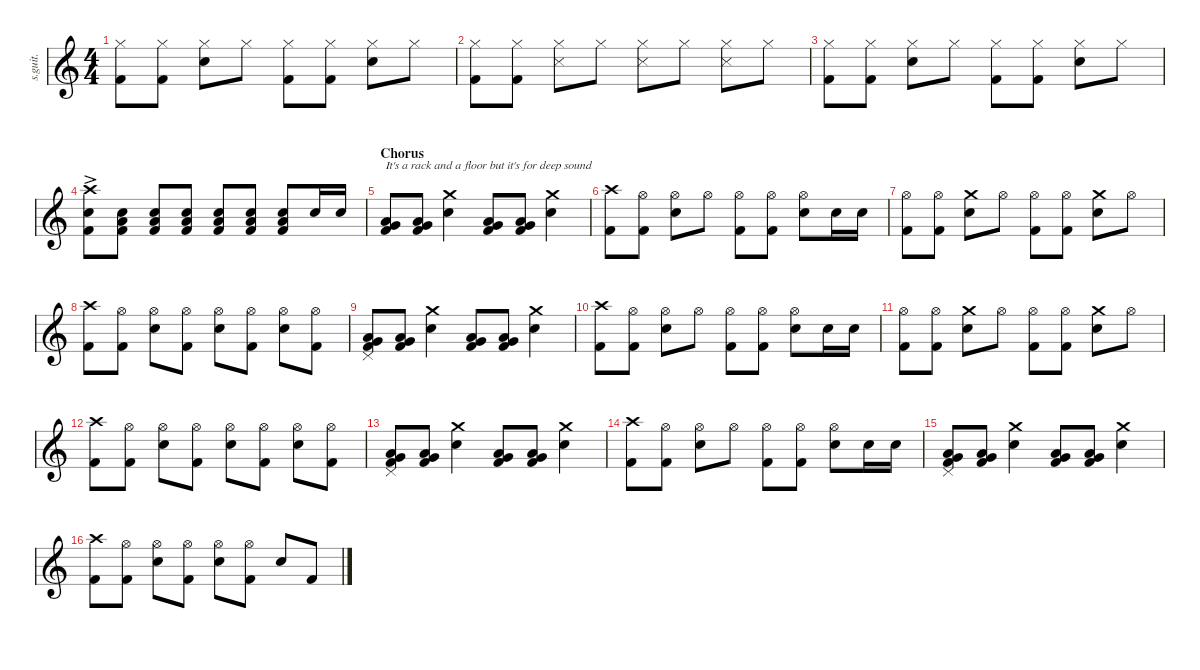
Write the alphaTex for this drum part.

\defaultSystemsLayout 4
\hideDynamics
\bracketExtendMode nobrackets
\track ("Dave Grohl - Drums" "s.guit.") {instrument percussion}
\staff {score}
\articulation defaults
\ts (4 4)
\tempo (100 hide)
\clef g2
\ks c
("Hi-Hat (closed)" "Kick (hit) 2").8{lyrics (0 "") lyrics (1 "") lyrics (2 "") lyrics (3 "") lyrics (4 "") dy mf} ("Hi-Hat (closed)" "Kick (hit) 2").8{lyrics (0 "") lyrics (1 "") lyrics (2 "") lyrics (3 "") lyrics (4 "")} ("Hi-Hat (closed)" "Snare (hit) 2").8{lyrics (0 "") lyrics (1 "") lyrics (2 "") lyrics (3 "") lyrics (4 "")} "Hi-Hat (closed)".8{lyrics (0 "") lyrics (1 "") lyrics (2 "") lyrics (3 "") lyrics (4 "")} ("Hi-Hat (closed)" "Kick (hit) 2").8{lyrics (0 "") lyrics (1 "") lyrics (2 "") lyrics (3 "") lyrics (4 "")} ("Hi-Hat (closed)" "Kick (hit) 2").8{lyrics (0 "") lyrics (1 "") lyrics (2 "") lyrics (3 "") lyrics (4 "")} ("Snare (hit) 2" "Hi-Hat (closed)").8{lyrics (0 "") lyrics (1 "") lyrics (2 "") lyrics (3 "") lyrics (4 "")} "Hi-Hat (closed)".8{lyrics (0 "") lyrics (1 "") lyrics (2 "") lyrics (3 "") lyrics (4 "")} |
("Hi-Hat (closed)" "Kick (hit) 2").8{lyrics (0 "") lyrics (1 "") lyrics (2 "") lyrics (3 "") lyrics (4 "")} ("Hi-Hat (closed)" "Kick (hit) 2").8{lyrics (0 "") lyrics (1 "") lyrics (2 "") lyrics (3 "") lyrics (4 "")} ("Hi-Hat (closed)" "Snare (side stick) 3").8{lyrics (0 "") lyrics (1 "") lyrics (2 "") lyrics (3 "") lyrics (4 "")} "Hi-Hat (closed)".8{lyrics (0 "") lyrics (1 "") lyrics (2 "") lyrics (3 "") lyrics (4 "")} ("Hi-Hat (closed)" "Snare (side stick) 3").8{lyrics (0 "") lyrics (1 "") lyrics (2 "") lyrics (3 "") lyrics (4 "")} "Hi-Hat (closed)".8{lyrics (0 "") lyrics (1 "") lyrics (2 "") lyrics (3 "") lyrics (4 "")} ("Hi-Hat (closed)" "Snare (side stick) 3").8{lyrics (0 "") lyrics (1 "") lyrics (2 "") lyrics (3 "") lyrics (4 "")} "Hi-Hat (closed)".8{lyrics (0 "") lyrics (1 "") lyrics (2 "") lyrics (3 "") lyrics (4 "")} |
("Hi-Hat (closed)" "Kick (hit) 2").8{lyrics (0 "") lyrics (1 "") lyrics (2 "") lyrics (3 "") lyrics (4 "")} ("Hi-Hat (closed)" "Kick (hit) 2").8{lyrics (0 "") lyrics (1 "") lyrics (2 "") lyrics (3 "") lyrics (4 "")} ("Hi-Hat (closed)" "Snare (hit) 2").8{lyrics (0 "") lyrics (1 "") lyrics (2 "") lyrics (3 "") lyrics (4 "")} "Hi-Hat (closed)".8{lyrics (0 "") lyrics (1 "") lyrics (2 "") lyrics (3 "") lyrics (4 "")} ("Hi-Hat (closed)" "Kick (hit) 2").8{lyrics (0 "") lyrics (1 "") lyrics (2 "") lyrics (3 "") lyrics (4 "")} ("Hi-Hat (closed)" "Kick (hit) 2").8{lyrics (0 "") lyrics (1 "") lyrics (2 "") lyrics (3 "") lyrics (4 "")} ("Snare (hit) 2" "Hi-Hat (closed)").8{lyrics (0 "") lyrics (1 "") lyrics (2 "") lyrics (3 "") lyrics (4 "")} "Hi-Hat (closed)".8{lyrics (0 "") lyrics (1 "") lyrics (2 "") lyrics (3 "") lyrics (4 "")} |
("Crash high (hit)"{ac} "Snare (hit) 2" "Kick (hit) 2").8{lyrics (0 "") lyrics (1 "") lyrics (2 "") lyrics (3 "") lyrics (4 "")} ("Snare (hit) 2" "Low Tom (hit)" "Kick (hit) 2").8{lyrics (0 "") lyrics (1 "") lyrics (2 "") lyrics (3 "") lyrics (4 "") dy pp} ("Snare (hit) 2" "Low Tom (hit)" "Kick (hit) 2").8{lyrics (0 "") lyrics (1 "") lyrics (2 "") lyrics (3 "") lyrics (4 "") dy p} ("Snare (hit) 2" "Low Tom (hit)" "Kick (hit) 2").8{lyrics (0 "") lyrics (1 "") lyrics (2 "") lyrics (3 "") lyrics (4 "")} ("Snare (hit) 2" "Low Tom (hit)" "Kick (hit) 2").8{lyrics (0 "") lyrics (1 "") lyrics (2 "") lyrics (3 "") lyrics (4 "") dy mp} ("Snare (hit) 2" "Low Tom (hit)" "Kick (hit) 2").8{lyrics (0 "") lyrics (1 "") lyrics (2 "") lyrics (3 "") lyrics (4 "") dy mf} ("Snare (hit) 2" "Low Tom (hit)" "Kick (hit) 2").8{lyrics (0 "") lyrics (1 "") lyrics (2 "") lyrics (3 "") lyrics (4 "") dy f} "Snare (hit) 2".16{lyrics (0 "") lyrics (1 "") lyrics (2 "") lyrics (3 "") lyrics (4 "") dy ff} "Snare (hit) 2".16{lyrics (0 "") lyrics (1 "") lyrics (2 "") lyrics (3 "") lyrics (4 "")} |
\section ("" "Chorus")
("Low Tom (hit)" "Kick (hit) 2" "Very Low Tom (hit)").8{txt "It's a rack and a floor but it's for deep sound" lyrics (0 "") lyrics (1 "") lyrics (2 "") lyrics (3 "") lyrics (4 "")} ("Low Tom (hit)" "Kick (hit) 2" "Very Low Tom (hit)").8{lyrics (0 "") lyrics (1 "") lyrics (2 "") lyrics (3 "") lyrics (4 "")} ("Snare (hit) 2" "Crash medium (hit)").4{lyrics (0 "") lyrics (1 "") lyrics (2 "") lyrics (3 "") lyrics (4 "")} ("Low Tom (hit)" "Kick (hit) 2" "Very Low Tom (hit)").8{lyrics (0 "") lyrics (1 "") lyrics (2 "") lyrics (3 "") lyrics (4 "")} ("Low Tom (hit)" "Kick (hit) 2" "Very Low Tom (hit)").8{lyrics (0 "") lyrics (1 "") lyrics (2 "") lyrics (3 "") lyrics (4 "")} ("Snare (hit) 2" "Crash medium (hit)").4{lyrics (0 "") lyrics (1 "") lyrics (2 "") lyrics (3 "") lyrics (4 "")} |
("Kick (hit) 2" "Crash high (hit)").8{lyrics (0 "") lyrics (1 "") lyrics (2 "") lyrics (3 "") lyrics (4 "")} ("Hi-Hat (open)" "Kick (hit) 2").8{lyrics (0 "") lyrics (1 "") lyrics (2 "") lyrics (3 "") lyrics (4 "")} ("Snare (hit) 2" "Hi-Hat (open)").8{lyrics (0 "") lyrics (1 "") lyrics (2 "") lyrics (3 "") lyrics (4 "")} "Hi-Hat (open)".8{lyrics (0 "") lyrics (1 "") lyrics (2 "") lyrics (3 "") lyrics (4 "")} ("Hi-Hat (open)" "Kick (hit) 2").8{lyrics (0 "") lyrics (1 "") lyrics (2 "") lyrics (3 "") lyrics (4 "")} ("Hi-Hat (open)" "Kick (hit) 2").8{lyrics (0 "") lyrics (1 "") lyrics (2 "") lyrics (3 "") lyrics (4 "") dy f} ("Snare (hit) 2" "Hi-Hat (open)").8{lyrics (0 "") lyrics (1 "") lyrics (2 "") lyrics (3 "") lyrics (4 "") dy ff} "Snare (hit) 2".16{lyrics (0 "") lyrics (1 "") lyrics (2 "") lyrics (3 "") lyrics (4 "")} "Snare (hit) 2".16{lyrics (0 "") lyrics (1 "") lyrics (2 "") lyrics (3 "") lyrics (4 "")} |
("Kick (hit) 2" "Hi-Hat (open)").8{lyrics (0 "") lyrics (1 "") lyrics (2 "") lyrics (3 "") lyrics (4 "")} ("Kick (hit) 2" "Hi-Hat (open)").8{lyrics (0 "") lyrics (1 "") lyrics (2 "") lyrics (3 "") lyrics (4 "")} ("Snare (hit) 2" "Crash medium (hit)").8{lyrics (0 "") lyrics (1 "") lyrics (2 "") lyrics (3 "") lyrics (4 "")} "Hi-Hat (open)".8{lyrics (0 "") lyrics (1 "") lyrics (2 "") lyrics (3 "") lyrics (4 "")} ("Kick (hit) 2" "Hi-Hat (open)").8{lyrics (0 "") lyrics (1 "") lyrics (2 "") lyrics (3 "") lyrics (4 "")} ("Kick (hit) 2" "Hi-Hat (open)").8{lyrics (0 "") lyrics (1 "") lyrics (2 "") lyrics (3 "") lyrics (4 "")} ("Snare (hit) 2" "Crash medium (hit)").8{lyrics (0 "") lyrics (1 "") lyrics (2 "") lyrics (3 "") lyrics (4 "")} "Hi-Hat (open)".8{lyrics (0 "") lyrics (1 "") lyrics (2 "") lyrics (3 "") lyrics (4 "")} |
("Kick (hit) 2" "Crash high (hit)").8{lyrics (0 "") lyrics (1 "") lyrics (2 "") lyrics (3 "") lyrics (4 "")} ("Hi-Hat (open)" "Kick (hit) 2").8{lyrics (0 "") lyrics (1 "") lyrics (2 "") lyrics (3 "") lyrics (4 "")} ("Snare (hit) 2" "Hi-Hat (open)").8{lyrics (0 "") lyrics (1 "") lyrics (2 "") lyrics (3 "") lyrics (4 "")} ("Hi-Hat (open)" "Kick (hit) 2").8{lyrics (0 "") lyrics (1 "") lyrics (2 "") lyrics (3 "") lyrics (4 "")} ("Snare (hit) 2" "Hi-Hat (open)").8{lyrics (0 "") lyrics (1 "") lyrics (2 "") lyrics (3 "") lyrics (4 "")} ("Hi-Hat (open)" "Kick (hit) 2").8{lyrics (0 "") lyrics (1 "") lyrics (2 "") lyrics (3 "") lyrics (4 "")} ("Snare (hit) 2" "Hi-Hat (open)").8{lyrics (0 "") lyrics (1 "") lyrics (2 "") lyrics (3 "") lyrics (4 "")} ("Hi-Hat (open)" "Kick (hit) 2").8{lyrics (0 "") lyrics (1 "") lyrics (2 "") lyrics (3 "") lyrics (4 "")} |
("Low Tom (hit)" "Kick (hit) 2" "Pedal Hi-Hat (hit)" "Very Low Tom (hit)").8{lyrics (0 "") lyrics (1 "") lyrics (2 "") lyrics (3 "") lyrics (4 "")} ("Low Tom (hit)" "Kick (hit) 2" "Very Low Tom (hit)").8{lyrics (0 "") lyrics (1 "") lyrics (2 "") lyrics (3 "") lyrics (4 "")} ("Snare (hit) 2" "Crash medium (hit)").4{lyrics (0 "") lyrics (1 "") lyrics (2 "") lyrics (3 "") lyrics (4 "")} ("Low Tom (hit)" "Kick (hit) 2" "Very Low Tom (hit)").8{lyrics (0 "") lyrics (1 "") lyrics (2 "") lyrics (3 "") lyrics (4 "")} ("Low Tom (hit)" "Kick (hit) 2" "Very Low Tom (hit)").8{lyrics (0 "") lyrics (1 "") lyrics (2 "") lyrics (3 "") lyrics (4 "")} ("Snare (hit) 2" "Crash medium (hit)").4{lyrics (0 "") lyrics (1 "") lyrics (2 "") lyrics (3 "") lyrics (4 "")} |
("Kick (hit) 2" "Crash high (hit)").8{lyrics (0 "") lyrics (1 "") lyrics (2 "") lyrics (3 "") lyrics (4 "")} ("Hi-Hat (open)" "Kick (hit) 2").8{lyrics (0 "") lyrics (1 "") lyrics (2 "") lyrics (3 "") lyrics (4 "")} ("Snare (hit) 2" "Hi-Hat (open)").8{lyrics (0 "") lyrics (1 "") lyrics (2 "") lyrics (3 "") lyrics (4 "")} "Hi-Hat (open)".8{lyrics (0 "") lyrics (1 "") lyrics (2 "") lyrics (3 "") lyrics (4 "")} ("Hi-Hat (open)" "Kick (hit) 2").8{lyrics (0 "") lyrics (1 "") lyrics (2 "") lyrics (3 "") lyrics (4 "")} ("Hi-Hat (open)" "Kick (hit) 2").8{lyrics (0 "") lyrics (1 "") lyrics (2 "") lyrics (3 "") lyrics (4 "") dy f} ("Snare (hit) 2" "Hi-Hat (open)").8{lyrics (0 "") lyrics (1 "") lyrics (2 "") lyrics (3 "") lyrics (4 "") dy ff} "Snare (hit) 2".16{lyrics (0 "") lyrics (1 "") lyrics (2 "") lyrics (3 "") lyrics (4 "")} "Snare (hit) 2".16{lyrics (0 "") lyrics (1 "") lyrics (2 "") lyrics (3 "") lyrics (4 "")} |
("Kick (hit) 2" "Hi-Hat (open)").8{lyrics (0 "") lyrics (1 "") lyrics (2 "") lyrics (3 "") lyrics (4 "")} ("Kick (hit) 2" "Hi-Hat (open)").8{lyrics (0 "") lyrics (1 "") lyrics (2 "") lyrics (3 "") lyrics (4 "")} ("Snare (hit) 2" "Crash medium (hit)").8{lyrics (0 "") lyrics (1 "") lyrics (2 "") lyrics (3 "") lyrics (4 "")} "Hi-Hat (open)".8{lyrics (0 "") lyrics (1 "") lyrics (2 "") lyrics (3 "") lyrics (4 "")} ("Kick (hit) 2" "Hi-Hat (open)").8{lyrics (0 "") lyrics (1 "") lyrics (2 "") lyrics (3 "") lyrics (4 "")} ("Kick (hit) 2" "Hi-Hat (open)").8{lyrics (0 "") lyrics (1 "") lyrics (2 "") lyrics (3 "") lyrics (4 "")} ("Snare (hit) 2" "Crash medium (hit)").8{lyrics (0 "") lyrics (1 "") lyrics (2 "") lyrics (3 "") lyrics (4 "")} "Hi-Hat (open)".8{lyrics (0 "") lyrics (1 "") lyrics (2 "") lyrics (3 "") lyrics (4 "")} |
("Kick (hit) 2" "Crash high (hit)").8{lyrics (0 "") lyrics (1 "") lyrics (2 "") lyrics (3 "") lyrics (4 "")} ("Hi-Hat (open)" "Kick (hit) 2").8{lyrics (0 "") lyrics (1 "") lyrics (2 "") lyrics (3 "") lyrics (4 "")} ("Snare (hit) 2" "Hi-Hat (open)").8{lyrics (0 "") lyrics (1 "") lyrics (2 "") lyrics (3 "") lyrics (4 "")} ("Hi-Hat (open)" "Kick (hit) 2").8{lyrics (0 "") lyrics (1 "") lyrics (2 "") lyrics (3 "") lyrics (4 "")} ("Snare (hit) 2" "Hi-Hat (open)").8{lyrics (0 "") lyrics (1 "") lyrics (2 "") lyrics (3 "") lyrics (4 "")} ("Hi-Hat (open)" "Kick (hit) 2").8{lyrics (0 "") lyrics (1 "") lyrics (2 "") lyrics (3 "") lyrics (4 "")} ("Snare (hit) 2" "Hi-Hat (open)").8{lyrics (0 "") lyrics (1 "") lyrics (2 "") lyrics (3 "") lyrics (4 "")} ("Hi-Hat (open)" "Kick (hit) 2").8{lyrics (0 "") lyrics (1 "") lyrics (2 "") lyrics (3 "") lyrics (4 "")} |
("Low Tom (hit)" "Kick (hit) 2" "Very Low Tom (hit)" "Pedal Hi-Hat (hit)").8{lyrics (0 "") lyrics (1 "") lyrics (2 "") lyrics (3 "") lyrics (4 "")} ("Low Tom (hit)" "Kick (hit) 2" "Very Low Tom (hit)").8{lyrics (0 "") lyrics (1 "") lyrics (2 "") lyrics (3 "") lyrics (4 "")} ("Snare (hit) 2" "Crash medium (hit)").4{lyrics (0 "") lyrics (1 "") lyrics (2 "") lyrics (3 "") lyrics (4 "")} ("Low Tom (hit)" "Kick (hit) 2" "Very Low Tom (hit)").8{lyrics (0 "") lyrics (1 "") lyrics (2 "") lyrics (3 "") lyrics (4 "")} ("Low Tom (hit)" "Kick (hit) 2" "Very Low Tom (hit)").8{lyrics (0 "") lyrics (1 "") lyrics (2 "") lyrics (3 "") lyrics (4 "")} ("Snare (hit) 2" "Crash medium (hit)").4{lyrics (0 "") lyrics (1 "") lyrics (2 "") lyrics (3 "") lyrics (4 "")} |
("Kick (hit) 2" "Crash high (hit)").8{lyrics (0 "") lyrics (1 "") lyrics (2 "") lyrics (3 "") lyrics (4 "")} ("Hi-Hat (open)" "Kick (hit) 2").8{lyrics (0 "") lyrics (1 "") lyrics (2 "") lyrics (3 "") lyrics (4 "")} ("Snare (hit) 2" "Hi-Hat (open)").8{lyrics (0 "") lyrics (1 "") lyrics (2 "") lyrics (3 "") lyrics (4 "")} "Hi-Hat (open)".8{lyrics (0 "") lyrics (1 "") lyrics (2 "") lyrics (3 "") lyrics (4 "")} ("Hi-Hat (open)" "Kick (hit) 2").8{lyrics (0 "") lyrics (1 "") lyrics (2 "") lyrics (3 "") lyrics (4 "")} ("Hi-Hat (open)" "Kick (hit) 2").8{lyrics (0 "") lyrics (1 "") lyrics (2 "") lyrics (3 "") lyrics (4 "") dy f} ("Snare (hit) 2" "Hi-Hat (open)").8{lyrics (0 "") lyrics (1 "") lyrics (2 "") lyrics (3 "") lyrics (4 "") dy ff} "Snare (hit) 2".16{lyrics (0 "") lyrics (1 "") lyrics (2 "") lyrics (3 "") lyrics (4 "")} "Snare (hit) 2".16{lyrics (0 "") lyrics (1 "") lyrics (2 "") lyrics (3 "") lyrics (4 "")} |
("Low Tom (hit)" "Kick (hit) 2" "Very Low Tom (hit)" "Pedal Hi-Hat (hit)").8{lyrics (0 "") lyrics (1 "") lyrics (2 "") lyrics (3 "") lyrics (4 "")} ("Low Tom (hit)" "Kick (hit) 2" "Very Low Tom (hit)").8{lyrics (0 "") lyrics (1 "") lyrics (2 "") lyrics (3 "") lyrics (4 "")} ("Snare (hit) 2" "Crash medium (hit)").4{lyrics (0 "") lyrics (1 "") lyrics (2 "") lyrics (3 "") lyrics (4 "")} ("Low Tom (hit)" "Kick (hit) 2" "Very Low Tom (hit)").8{lyrics (0 "") lyrics (1 "") lyrics (2 "") lyrics (3 "") lyrics (4 "")} ("Low Tom (hit)" "Kick (hit) 2" "Very Low Tom (hit)").8{lyrics (0 "") lyrics (1 "") lyrics (2 "") lyrics (3 "") lyrics (4 "")} ("Snare (hit) 2" "Crash medium (hit)").4{lyrics (0 "") lyrics (1 "") lyrics (2 "") lyrics (3 "") lyrics (4 "")} |
("Kick (hit) 2" "Crash high (hit)").8{lyrics (0 "") lyrics (1 "") lyrics (2 "") lyrics (3 "") lyrics (4 "")} ("Hi-Hat (open)" "Kick (hit) 2").8{lyrics (0 "") lyrics (1 "") lyrics (2 "") lyrics (3 "") lyrics (4 "")} ("Snare (hit) 2" "Hi-Hat (open)").8{lyrics (0 "") lyrics (1 "") lyrics (2 "") lyrics (3 "") lyrics (4 "")} ("Hi-Hat (open)" "Kick (hit) 2").8{lyrics (0 "") lyrics (1 "") lyrics (2 "") lyrics (3 "") lyrics (4 "")} ("Snare (hit) 2" "Hi-Hat (open)").8{lyrics (0 "") lyrics (1 "") lyrics (2 "") lyrics (3 "") lyrics (4 "")} ("Hi-Hat (open)" "Kick (hit) 2").8{lyrics (0 "") lyrics (1 "") lyrics (2 "") lyrics (3 "") lyrics (4 "")} "Snare (hit) 2".8{lyrics (0 "") lyrics (1 "") lyrics (2 "") lyrics (3 "") lyrics (4 "") dy fff} "Kick (hit) 2".8{lyrics (0 "") lyrics (1 "") lyrics (2 "") lyrics (3 "") lyrics (4 "") dy ff}
